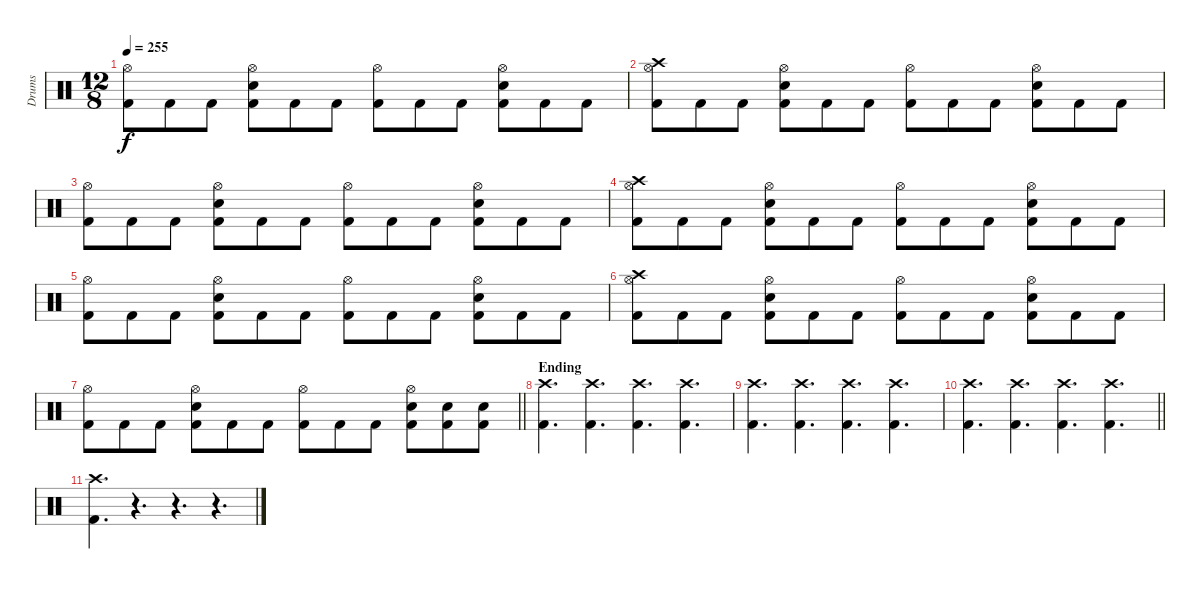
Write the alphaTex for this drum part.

\track ("Drums" "Drums") {instrument percussion}
\staff {score}
\articulation defaults
\ts (12 8)
\tempo 255
\clef neutral
\ks c
("Hi-Hat (open)" "Kick (hit) 2").8{dy f} "Kick (hit) 2".8 "Kick (hit) 2".8 ("Hi-Hat (open)" "Snare (hit) 2" "Kick (hit) 2").8 "Kick (hit) 2".8 "Kick (hit) 2".8 ("Hi-Hat (open)" "Kick (hit) 2").8 "Kick (hit) 2".8 "Kick (hit) 2".8 ("Hi-Hat (open)" "Snare (hit) 2" "Kick (hit) 2").8 "Kick (hit) 2".8 "Kick (hit) 2".8 |
("Crash high (hit)" "Hi-Hat (open)" "Kick (hit) 2").8 "Kick (hit) 2".8 "Kick (hit) 2".8 ("Hi-Hat (open)" "Snare (hit) 2" "Kick (hit) 2").8 "Kick (hit) 2".8 "Kick (hit) 2".8 ("Hi-Hat (open)" "Kick (hit) 2").8 "Kick (hit) 2".8 "Kick (hit) 2".8 ("Hi-Hat (open)" "Snare (hit) 2" "Kick (hit) 2").8 "Kick (hit) 2".8 "Kick (hit) 2".8 |
("Hi-Hat (open)" "Kick (hit) 2").8 "Kick (hit) 2".8 "Kick (hit) 2".8 ("Hi-Hat (open)" "Snare (hit) 2" "Kick (hit) 2").8 "Kick (hit) 2".8 "Kick (hit) 2".8 ("Hi-Hat (open)" "Kick (hit) 2").8 "Kick (hit) 2".8 "Kick (hit) 2".8 ("Hi-Hat (open)" "Snare (hit) 2" "Kick (hit) 2").8 "Kick (hit) 2".8 "Kick (hit) 2".8 |
("Crash high (hit)" "Hi-Hat (open)" "Kick (hit) 2").8 "Kick (hit) 2".8 "Kick (hit) 2".8 ("Hi-Hat (open)" "Snare (hit) 2" "Kick (hit) 2").8 "Kick (hit) 2".8 "Kick (hit) 2".8 ("Hi-Hat (open)" "Kick (hit) 2").8 "Kick (hit) 2".8 "Kick (hit) 2".8 ("Hi-Hat (open)" "Snare (hit) 2" "Kick (hit) 2").8 "Kick (hit) 2".8 "Kick (hit) 2".8 |
("Hi-Hat (open)" "Kick (hit) 2").8 "Kick (hit) 2".8 "Kick (hit) 2".8 ("Hi-Hat (open)" "Snare (hit) 2" "Kick (hit) 2").8 "Kick (hit) 2".8 "Kick (hit) 2".8 ("Hi-Hat (open)" "Kick (hit) 2").8 "Kick (hit) 2".8 "Kick (hit) 2".8 ("Hi-Hat (open)" "Snare (hit) 2" "Kick (hit) 2").8 "Kick (hit) 2".8 "Kick (hit) 2".8 |
("Crash high (hit)" "Hi-Hat (open)" "Kick (hit) 2").8 "Kick (hit) 2".8 "Kick (hit) 2".8 ("Hi-Hat (open)" "Snare (hit) 2" "Kick (hit) 2").8 "Kick (hit) 2".8 "Kick (hit) 2".8 ("Hi-Hat (open)" "Kick (hit) 2").8 "Kick (hit) 2".8 "Kick (hit) 2".8 ("Hi-Hat (open)" "Snare (hit) 2" "Kick (hit) 2").8 "Kick (hit) 2".8 "Kick (hit) 2".8 |
\barLineRight lightlight
("Hi-Hat (open)" "Kick (hit) 2").8 "Kick (hit) 2".8 "Kick (hit) 2".8 ("Hi-Hat (open)" "Snare (hit) 2" "Kick (hit) 2").8 "Kick (hit) 2".8 "Kick (hit) 2".8 ("Hi-Hat (open)" "Kick (hit) 2").8 "Kick (hit) 2".8 "Kick (hit) 2".8 ("Hi-Hat (open)" "Snare (hit) 2" "Kick (hit) 2").8 ("Snare (hit) 2" "Kick (hit) 2").8 ("Snare (hit) 2" "Kick (hit) 2").8 |
\section ("" "Ending")
("Crash high (hit)" "Kick (hit) 2").4{d} ("Crash high (hit)" "Kick (hit) 2").4{d} ("Crash high (hit)" "Kick (hit) 2").4{d} ("Crash high (hit)" "Kick (hit) 2").4{d} |
("Crash high (hit)" "Kick (hit) 2").4{d} ("Crash high (hit)" "Kick (hit) 2").4{d} ("Crash high (hit)" "Kick (hit) 2").4{d} ("Crash high (hit)" "Kick (hit) 2").4{d} |
\barLineRight lightlight
("Crash high (hit)" "Kick (hit) 2").4{d} ("Crash high (hit)" "Kick (hit) 2").4{d} ("Crash high (hit)" "Kick (hit) 2").4{d} ("Crash high (hit)" "Kick (hit) 2").4{d} |
("Crash high (hit)" "Kick (hit) 2").4{d} r.4{d} r.4{d} r.4{d}
